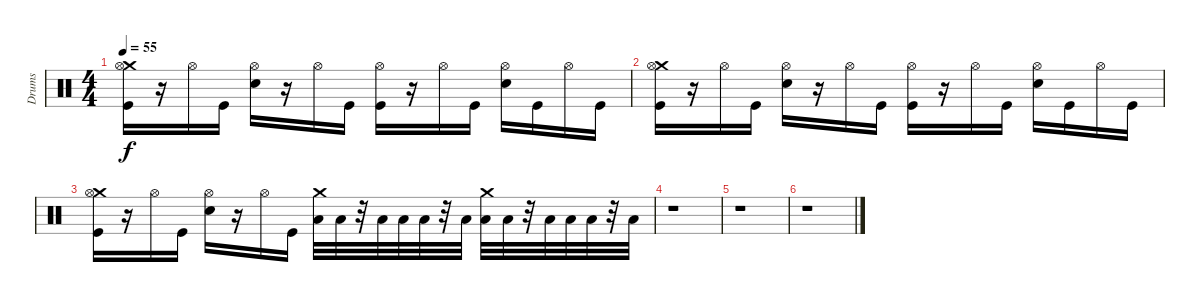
\track ("Drums" "Drums") {instrument percussion}
\staff {score}
\articulation defaults
\ts (4 4)
\tempo 55
\clef neutral
\ks c
("Crash medium (hit)" "Hi-Hat (open)" "Kick (hit)").16{dy f} r.16 "Hi-Hat (open)".16 "Kick (hit)".16 ("Electric Snare (hit)" "Hi-Hat (open)").16 r.16 "Hi-Hat (open)".16 "Kick (hit)".16 ("Kick (hit)" "Hi-Hat (open)").16 r.16 "Hi-Hat (open)".16 "Kick (hit)".16 ("Hi-Hat (open)" "Electric Snare (hit)").16 "Kick (hit)".16 "Hi-Hat (open)".16 "Kick (hit)".16 |
("Crash medium (hit)" "Hi-Hat (open)" "Kick (hit)").16 r.16 "Hi-Hat (open)".16 "Kick (hit)".16 ("Hi-Hat (open)" "Electric Snare (hit)").16 r.16 "Hi-Hat (open)".16 "Kick (hit)".16 ("Hi-Hat (open)" "Kick (hit)").16 r.16 "Hi-Hat (open)".16 "Kick (hit)".16 ("Electric Snare (hit)" "Hi-Hat (open)").16 "Kick (hit)".16 "Hi-Hat (open)".16 "Kick (hit)".16 |
("Crash medium (hit)" "Kick (hit)" "Hi-Hat (open)").16 r.16 "Hi-Hat (open)".16 "Kick (hit)".16 ("Hi-Hat (open)" "Electric Snare (hit)").16 r.16 "Hi-Hat (open)".16 "Kick (hit)".16 ("Low Floor Tom (hit)" "Crash medium (hit)").32 "Low Tom (hit)".32 r.32 "Low Tom (hit)".32 "Low Tom (hit)".32 "Low Tom (hit)".32 r.32 "Low Tom (hit)".32 ("Low Floor Tom (hit)" "Crash medium (hit)").32 "Low Tom (hit)".32 r.32 "Low Tom (hit)".32 "Low Tom (hit)".32 "Low Tom (hit)".32 r.32 "Low Tom (hit)".32 |
r.1 |
r.1 |
r.1
